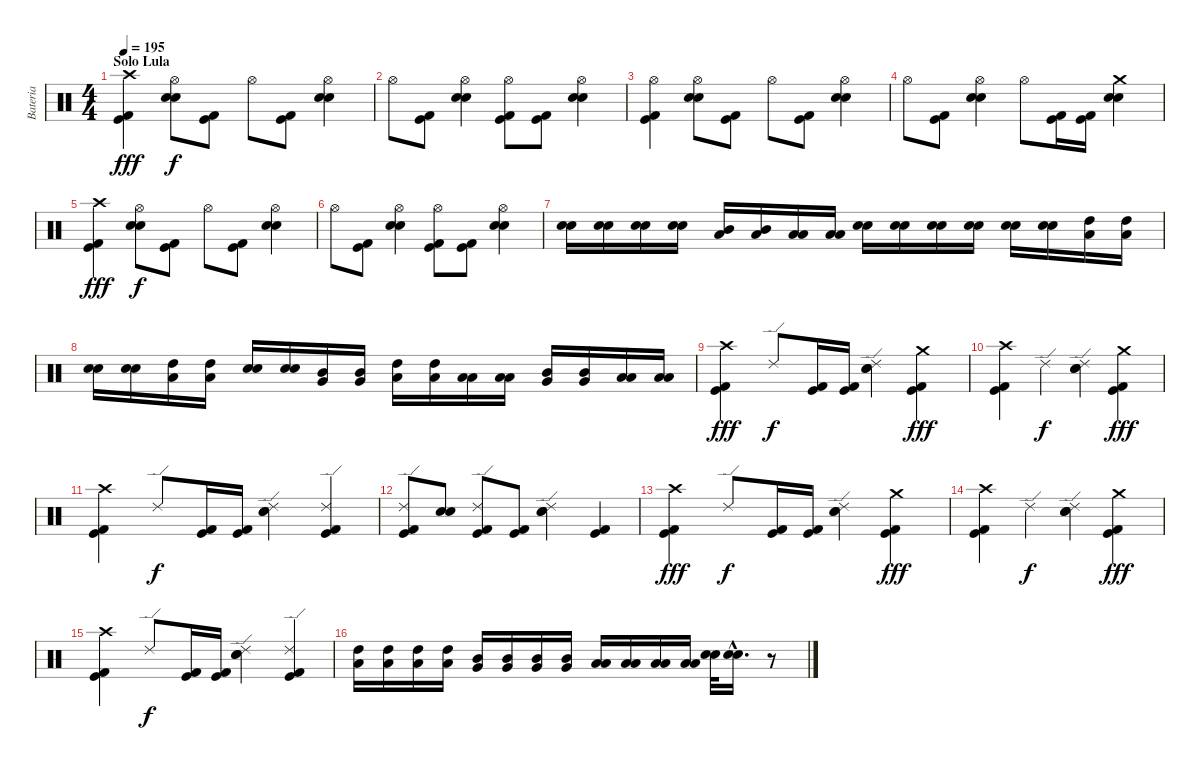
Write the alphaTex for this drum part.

\track ("Bateria" "Bateria") {instrument percussion}
\staff {score}
\articulation defaults
\ts (4 4)
\section ("" "Solo Lula")
\tempo 195
\clef neutral
\ks c
("Crash high (hit)" "Kick (hit) 2" "Kick (hit)").4{dy fff} ("Hi-Hat (open)" "Electric Snare (hit)" "Snare (hit) 2").8{dy f} ("Kick (hit) 2" "Kick (hit)").8 "Hi-Hat (open)".8 ("Kick (hit) 2" "Kick (hit)").8 ("Hi-Hat (open)" "Electric Snare (hit)" "Snare (hit) 2").4 |
"Hi-Hat (open)".8 ("Kick (hit) 2" "Kick (hit)").8 ("Hi-Hat (open)" "Electric Snare (hit)" "Snare (hit) 2").4 ("Hi-Hat (open)" "Kick (hit) 2" "Kick (hit)").8 ("Kick (hit) 2" "Kick (hit)").8 ("Hi-Hat (open)" "Electric Snare (hit)" "Snare (hit) 2").4 |
("Hi-Hat (open)" "Kick (hit) 2" "Kick (hit)").4 ("Hi-Hat (open)" "Electric Snare (hit)" "Snare (hit) 2").8 ("Kick (hit) 2" "Kick (hit)").8 "Hi-Hat (open)".8 ("Kick (hit) 2" "Kick (hit)").8 ("Hi-Hat (open)" "Electric Snare (hit)" "Snare (hit) 2").4 |
"Hi-Hat (open)".8 ("Kick (hit) 2" "Kick (hit)").8 ("Hi-Hat (open)" "Electric Snare (hit)" "Snare (hit) 2").4 "Hi-Hat (open)".8 ("Kick (hit) 2" "Kick (hit)").16 ("Kick (hit) 2" "Kick (hit)").16 ("Crash medium (hit)" "Electric Snare (hit)" "Snare (hit) 2").4 |
("Crash high (hit)" "Kick (hit) 2" "Kick (hit)").4{dy fff} ("Hi-Hat (open)" "Electric Snare (hit)" "Snare (hit) 2").8{dy f} ("Kick (hit) 2" "Kick (hit)").8 "Hi-Hat (open)".8 ("Kick (hit) 2" "Kick (hit)").8 ("Hi-Hat (open)" "Electric Snare (hit)" "Snare (hit) 2").4 |
"Hi-Hat (open)".8 ("Kick (hit) 2" "Kick (hit)").8 ("Hi-Hat (open)" "Electric Snare (hit)" "Snare (hit) 2").4 ("Hi-Hat (open)" "Kick (hit) 2" "Kick (hit)").8 ("Kick (hit) 2" "Kick (hit)").8 ("Hi-Hat (open)" "Electric Snare (hit)" "Snare (hit) 2").4 |
("Electric Snare (hit)" "Snare (hit) 2").16 ("Electric Snare (hit)" "Snare (hit) 2").16 ("Electric Snare (hit)" "Snare (hit) 2").16 ("Electric Snare (hit)" "Snare (hit) 2").16 ("Mid Tom (hit)" "Low Tom (hit)").16 ("Mid Tom (hit)" "Low Tom (hit)").16 ("Low Tom (hit)" "Low Floor Tom (hit)").16 ("Low Tom (hit)" "Low Floor Tom (hit)").16 ("Electric Snare (hit)" "Snare (hit) 2").16 ("Electric Snare (hit)" "Snare (hit) 2").16 ("Electric Snare (hit)" "Snare (hit) 2").16 ("Electric Snare (hit)" "Snare (hit) 2").16 ("Electric Snare (hit)" "Snare (hit) 2").16 ("Electric Snare (hit)" "Snare (hit) 2").16 ("High Tom (hit)" "Low Tom (hit)").16 ("High Tom (hit)" "Low Tom (hit)").16 |
("Electric Snare (hit)" "Snare (hit) 2").16 ("Electric Snare (hit)" "Snare (hit) 2").16 ("High Tom (hit)" "Low Tom (hit)").16 ("High Tom (hit)" "Low Tom (hit)").16 ("Electric Snare (hit)" "Snare (hit) 2").16 ("Electric Snare (hit)" "Snare (hit) 2").16 ("Mid Tom (hit)" "Very Low Tom (hit)").16 ("Mid Tom (hit)" "Very Low Tom (hit)").16 ("High Tom (hit)" "Low Tom (hit)").16 ("High Tom (hit)" "Low Tom (hit)").16 ("Low Tom (hit)" "Low Floor Tom (hit)").16 ("Low Tom (hit)" "Low Floor Tom (hit)").16 ("Mid Tom (hit)" "Very Low Tom (hit)").16 ("Mid Tom (hit)" "Very Low Tom (hit)").16 ("Low Tom (hit)" "Low Floor Tom (hit)").16 ("Low Tom (hit)" "Low Floor Tom (hit)").16 |
("Crash high (hit)" "Kick (hit) 2" "Kick (hit)").4{dy fff} "Ride (edge) 2".8{dy f} ("Kick (hit) 2" "Kick (hit)").16 ("Kick (hit) 2" "Kick (hit)").16 ("Ride (edge) 2" "Electric Snare (hit)" "Snare (hit) 2").4 ("Crash medium (hit)" "Kick (hit) 2" "Kick (hit)").4{dy fff} |
("Crash high (hit)" "Kick (hit) 2" "Kick (hit)").4 "Ride (edge) 2".4{dy f} ("Ride (edge) 2" "Electric Snare (hit)" "Snare (hit) 2").4 ("Crash medium (hit)" "Kick (hit) 2" "Kick (hit)").4{dy fff} |
("Crash high (hit)" "Kick (hit) 2" "Kick (hit)").4 "Ride (edge) 2".8{dy f} ("Kick (hit) 2" "Kick (hit)").16 ("Kick (hit) 2" "Kick (hit)").16 ("Ride (edge) 2" "Electric Snare (hit)" "Snare (hit) 2").4 ("Ride (edge) 2" "Kick (hit) 2" "Kick (hit)").4 |
("Ride (edge) 2" "Kick (hit) 2" "Kick (hit)").8 ("Electric Snare (hit)" "Snare (hit) 2").8 ("Ride (edge) 2" "Kick (hit) 2" "Kick (hit)").8 ("Kick (hit) 2" "Kick (hit)").8 ("Ride (edge) 2" "Electric Snare (hit)" "Snare (hit) 2").4 ("Kick (hit) 2" "Kick (hit)").4 |
("Crash high (hit)" "Kick (hit) 2" "Kick (hit)").4{dy fff} "Ride (edge) 2".8{dy f} ("Kick (hit) 2" "Kick (hit)").16 ("Kick (hit) 2" "Kick (hit)").16 ("Ride (edge) 2" "Electric Snare (hit)" "Snare (hit) 2").4 ("Crash medium (hit)" "Kick (hit) 2" "Kick (hit)").4{dy fff} |
("Crash high (hit)" "Kick (hit) 2" "Kick (hit)").4 "Ride (edge) 2".4{dy f} ("Ride (edge) 2" "Electric Snare (hit)" "Snare (hit) 2").4 ("Crash medium (hit)" "Kick (hit) 2" "Kick (hit)").4{dy fff} |
("Crash high (hit)" "Kick (hit) 2" "Kick (hit)").4 "Ride (edge) 2".8{dy f} ("Kick (hit) 2" "Kick (hit)").16 ("Kick (hit) 2" "Kick (hit)").16 ("Ride (edge) 2" "Electric Snare (hit)" "Snare (hit) 2").4 ("Ride (edge) 2" "Kick (hit) 2" "Kick (hit)").4 |
("High Tom (hit)" "Low Tom (hit)").16 ("High Tom (hit)" "Low Tom (hit)").16 ("High Tom (hit)" "Low Tom (hit)").16 ("High Tom (hit)" "Low Tom (hit)").16 ("Mid Tom (hit)" "Very Low Tom (hit)").16 ("Mid Tom (hit)" "Very Low Tom (hit)").16 ("Mid Tom (hit)" "Very Low Tom (hit)").16 ("Mid Tom (hit)" "Very Low Tom (hit)").16 ("Low Tom (hit)" "Low Floor Tom (hit)").16 ("Low Tom (hit)" "Low Floor Tom (hit)").16 ("Low Tom (hit)" "Low Floor Tom (hit)").16 ("Low Tom (hit)" "Low Floor Tom (hit)").16 ("Electric Snare (hit)" "Snare (hit) 2").32 ("Electric Snare (hit)"{hac} "Snare (hit) 2"{hac}).16{d} r.8
